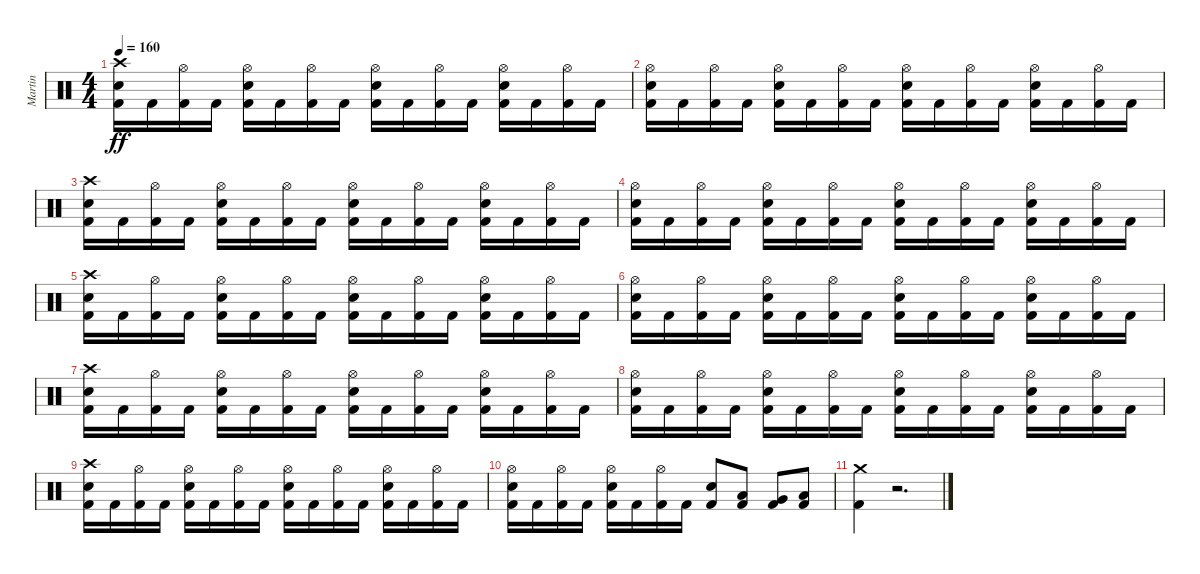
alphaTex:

\track ("Martin" "Martin") {instrument percussion}
\staff {score}
\articulation defaults
\ts (4 4)
\tempo 160
\clef neutral
\ks c
("Crash high (hit)" "Electric Snare (hit)" "Kick (hit) 2").16{dy ff} "Kick (hit) 2".16 ("Hi-Hat (open)" "Kick (hit) 2").16 "Kick (hit) 2".16 ("Hi-Hat (open)" "Electric Snare (hit)" "Kick (hit) 2").16 "Kick (hit) 2".16 ("Hi-Hat (open)" "Kick (hit) 2").16 "Kick (hit) 2".16 ("Hi-Hat (open)" "Electric Snare (hit)" "Kick (hit) 2").16 "Kick (hit) 2".16 ("Hi-Hat (open)" "Kick (hit) 2").16 "Kick (hit) 2".16 ("Hi-Hat (open)" "Electric Snare (hit)" "Kick (hit) 2").16 "Kick (hit) 2".16 ("Hi-Hat (open)" "Kick (hit) 2").16 "Kick (hit) 2".16 |
("Hi-Hat (open)" "Electric Snare (hit)" "Kick (hit) 2").16 "Kick (hit) 2".16 ("Hi-Hat (open)" "Kick (hit) 2").16 "Kick (hit) 2".16 ("Hi-Hat (open)" "Electric Snare (hit)" "Kick (hit) 2").16 "Kick (hit) 2".16 ("Hi-Hat (open)" "Kick (hit) 2").16 "Kick (hit) 2".16 ("Hi-Hat (open)" "Electric Snare (hit)" "Kick (hit) 2").16 "Kick (hit) 2".16 ("Hi-Hat (open)" "Kick (hit) 2").16 "Kick (hit) 2".16 ("Hi-Hat (open)" "Electric Snare (hit)" "Kick (hit) 2").16 "Kick (hit) 2".16 ("Hi-Hat (open)" "Kick (hit) 2").16 "Kick (hit) 2".16 |
("Crash high (hit)" "Electric Snare (hit)" "Kick (hit) 2").16 "Kick (hit) 2".16 ("Hi-Hat (open)" "Kick (hit) 2").16 "Kick (hit) 2".16 ("Hi-Hat (open)" "Electric Snare (hit)" "Kick (hit) 2").16 "Kick (hit) 2".16 ("Hi-Hat (open)" "Kick (hit) 2").16 "Kick (hit) 2".16 ("Hi-Hat (open)" "Electric Snare (hit)" "Kick (hit) 2").16 "Kick (hit) 2".16 ("Hi-Hat (open)" "Kick (hit) 2").16 "Kick (hit) 2".16 ("Hi-Hat (open)" "Electric Snare (hit)" "Kick (hit) 2").16 "Kick (hit) 2".16 ("Hi-Hat (open)" "Kick (hit) 2").16 "Kick (hit) 2".16 |
("Hi-Hat (open)" "Electric Snare (hit)" "Kick (hit) 2").16 "Kick (hit) 2".16 ("Hi-Hat (open)" "Kick (hit) 2").16 "Kick (hit) 2".16 ("Hi-Hat (open)" "Electric Snare (hit)" "Kick (hit) 2").16 "Kick (hit) 2".16 ("Hi-Hat (open)" "Kick (hit) 2").16 "Kick (hit) 2".16 ("Hi-Hat (open)" "Electric Snare (hit)" "Kick (hit) 2").16 "Kick (hit) 2".16 ("Hi-Hat (open)" "Kick (hit) 2").16 "Kick (hit) 2".16 ("Hi-Hat (open)" "Electric Snare (hit)" "Kick (hit) 2").16 "Kick (hit) 2".16 ("Hi-Hat (open)" "Kick (hit) 2").16 "Kick (hit) 2".16 |
("Crash high (hit)" "Electric Snare (hit)" "Kick (hit) 2").16 "Kick (hit) 2".16 ("Hi-Hat (open)" "Kick (hit) 2").16 "Kick (hit) 2".16 ("Hi-Hat (open)" "Electric Snare (hit)" "Kick (hit) 2").16 "Kick (hit) 2".16 ("Hi-Hat (open)" "Kick (hit) 2").16 "Kick (hit) 2".16 ("Hi-Hat (open)" "Electric Snare (hit)" "Kick (hit) 2").16 "Kick (hit) 2".16 ("Hi-Hat (open)" "Kick (hit) 2").16 "Kick (hit) 2".16 ("Hi-Hat (open)" "Electric Snare (hit)" "Kick (hit) 2").16 "Kick (hit) 2".16 ("Hi-Hat (open)" "Kick (hit) 2").16 "Kick (hit) 2".16 |
("Hi-Hat (open)" "Electric Snare (hit)" "Kick (hit) 2").16 "Kick (hit) 2".16 ("Hi-Hat (open)" "Kick (hit) 2").16 "Kick (hit) 2".16 ("Hi-Hat (open)" "Electric Snare (hit)" "Kick (hit) 2").16 "Kick (hit) 2".16 ("Hi-Hat (open)" "Kick (hit) 2").16 "Kick (hit) 2".16 ("Hi-Hat (open)" "Electric Snare (hit)" "Kick (hit) 2").16 "Kick (hit) 2".16 ("Hi-Hat (open)" "Kick (hit) 2").16 "Kick (hit) 2".16 ("Hi-Hat (open)" "Electric Snare (hit)" "Kick (hit) 2").16 "Kick (hit) 2".16 ("Hi-Hat (open)" "Kick (hit) 2").16 "Kick (hit) 2".16 |
("Crash high (hit)" "Electric Snare (hit)" "Kick (hit) 2").16 "Kick (hit) 2".16 ("Hi-Hat (open)" "Kick (hit) 2").16 "Kick (hit) 2".16 ("Hi-Hat (open)" "Electric Snare (hit)" "Kick (hit) 2").16 "Kick (hit) 2".16 ("Hi-Hat (open)" "Kick (hit) 2").16 "Kick (hit) 2".16 ("Hi-Hat (open)" "Electric Snare (hit)" "Kick (hit) 2").16 "Kick (hit) 2".16 ("Hi-Hat (open)" "Kick (hit) 2").16 "Kick (hit) 2".16 ("Hi-Hat (open)" "Electric Snare (hit)" "Kick (hit) 2").16 "Kick (hit) 2".16 ("Hi-Hat (open)" "Kick (hit) 2").16 "Kick (hit) 2".16 |
("Hi-Hat (open)" "Electric Snare (hit)" "Kick (hit) 2").16 "Kick (hit) 2".16 ("Hi-Hat (open)" "Kick (hit) 2").16 "Kick (hit) 2".16 ("Hi-Hat (open)" "Electric Snare (hit)" "Kick (hit) 2").16 "Kick (hit) 2".16 ("Hi-Hat (open)" "Kick (hit) 2").16 "Kick (hit) 2".16 ("Hi-Hat (open)" "Electric Snare (hit)" "Kick (hit) 2").16 "Kick (hit) 2".16 ("Hi-Hat (open)" "Kick (hit) 2").16 "Kick (hit) 2".16 ("Hi-Hat (open)" "Electric Snare (hit)" "Kick (hit) 2").16 "Kick (hit) 2".16 ("Hi-Hat (open)" "Kick (hit) 2").16 "Kick (hit) 2".16 |
("Crash high (hit)" "Electric Snare (hit)" "Kick (hit) 2").16 "Kick (hit) 2".16 ("Hi-Hat (open)" "Kick (hit) 2").16 "Kick (hit) 2".16 ("Hi-Hat (open)" "Electric Snare (hit)" "Kick (hit) 2").16 "Kick (hit) 2".16 ("Hi-Hat (open)" "Kick (hit) 2").16 "Kick (hit) 2".16 ("Hi-Hat (open)" "Electric Snare (hit)" "Kick (hit) 2").16 "Kick (hit) 2".16 ("Hi-Hat (open)" "Kick (hit) 2").16 "Kick (hit) 2".16 ("Hi-Hat (open)" "Electric Snare (hit)" "Kick (hit) 2").16 "Kick (hit) 2".16 ("Hi-Hat (open)" "Kick (hit) 2").16 "Kick (hit) 2".16 |
("Hi-Hat (open)" "Electric Snare (hit)" "Kick (hit) 2").16 "Kick (hit) 2".16 ("Hi-Hat (open)" "Kick (hit) 2").16 "Kick (hit) 2".16 ("Hi-Hat (open)" "Electric Snare (hit)" "Kick (hit) 2").16 "Kick (hit) 2".16 ("Hi-Hat (open)" "Kick (hit) 2").16 "Kick (hit) 2".16 ("Electric Snare (hit)" "Kick (hit) 2").8 ("Low Tom (hit)" "Kick (hit) 2").8 ("Very Low Tom (hit)" "Kick (hit) 2").8 ("Low Floor Tom (hit)" "Kick (hit) 2").8 |
("Crash medium (hit)" "Kick (hit) 2").4 r.2{d}
